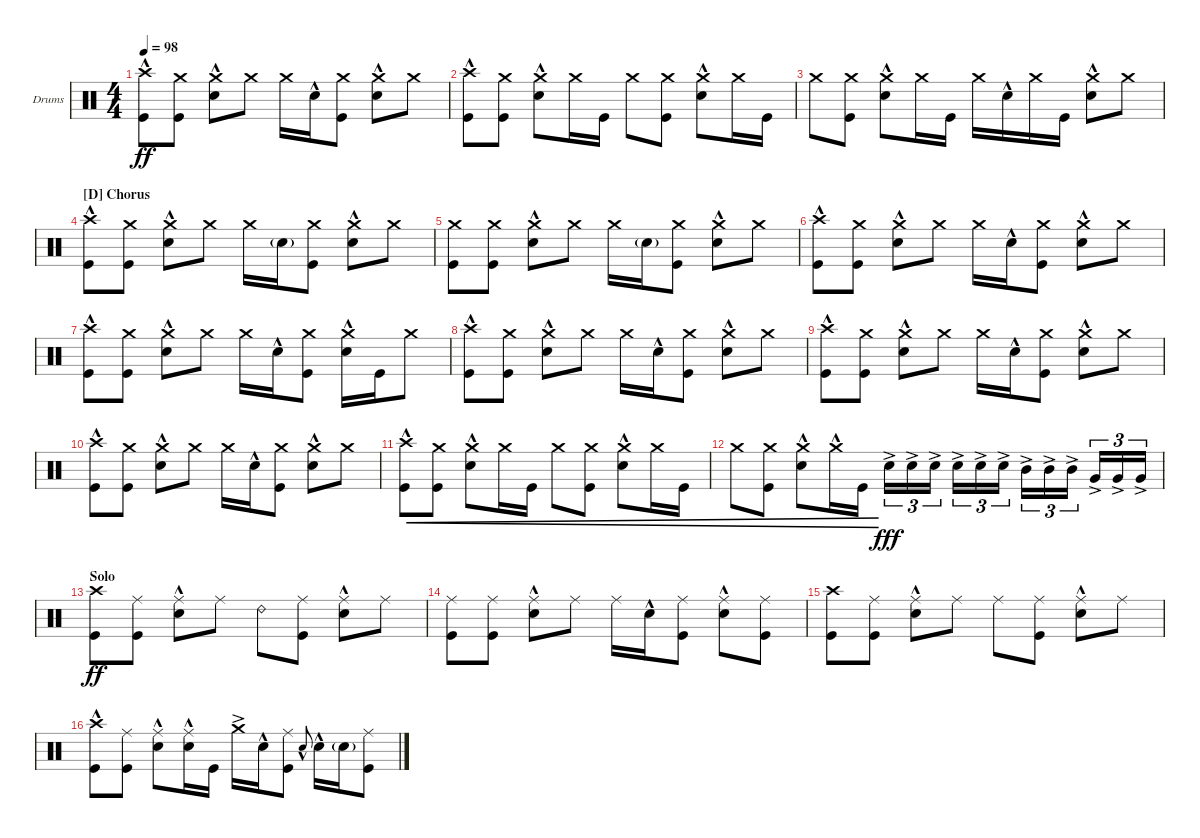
\defaultSystemsLayout 4
\bracketExtendMode groupsimilarinstruments
\firstSystemTrackNameOrientation horizontal
\otherSystemsTrackNameOrientation horizontal
\track ("Drumkit (Chad Smith)" "Drums") {instrument percussion}
\staff {score}
\articulation defaults
\ts (4 4)
\tempo 98
\clef neutral
\scale
0.333333
\ks c
("Kick (hit)" "Crash high (hit)"{hac}).8{dy ff} ("Crash medium (hit)" "Kick (hit)").8 ("Crash medium (hit)" "Snare (hit) 2"{hac}).8 "Crash medium (hit)".8 "Crash medium (hit)".16 "Snare (hit) 2"{hac}.16 ("Crash medium (hit)" "Kick (hit)").8 ("Crash medium (hit)" "Snare (hit) 2"{hac}).8 "Crash medium (hit)".8 |
\scale
0.333333 ("Kick (hit)" "Crash high (hit)"{hac}).8 ("Crash medium (hit)" "Kick (hit)").8 ("Crash medium (hit)" "Snare (hit) 2"{hac}).8 "Crash medium (hit)".16 "Kick (hit)".16 "Crash medium (hit)".8 ("Crash medium (hit)" "Kick (hit)").8 ("Crash medium (hit)" "Snare (hit) 2"{hac}).8 "Crash medium (hit)".16 "Kick (hit)".16 |
\scale
0.333333 "Crash medium (hit)".8 ("Crash medium (hit)" "Kick (hit)").8 ("Crash medium (hit)" "Snare (hit) 2"{hac}).8 "Crash medium (hit)".16 "Kick (hit)".16 "Crash medium (hit)".16 "Snare (hit) 2"{hac}.16 "Crash medium (hit)".16 "Kick (hit)".16 ("Snare (hit) 2"{hac} "Crash medium (hit)").8 "Crash medium (hit)".8 |
\section ("D" "Chorus")
\scale
0.333333 ("Kick (hit)" "Crash high (hit)"{hac}).8 ("Crash medium (hit)" "Kick (hit)").8 ("Crash medium (hit)" "Snare (hit) 2"{hac}).8 "Crash medium (hit)".8 "Crash medium (hit)".16 "Snare (hit) 2"{g}.16 ("Crash medium (hit)" "Kick (hit)").8 ("Crash medium (hit)" "Snare (hit) 2"{hac}).8 "Crash medium (hit)".8 |
\scale
0.333333 ("Crash medium (hit)" "Kick (hit)").8 ("Crash medium (hit)" "Kick (hit)").8 ("Crash medium (hit)" "Snare (hit) 2"{hac}).8 "Crash medium (hit)".8 "Crash medium (hit)".16 "Snare (hit) 2"{g}.16 ("Crash medium (hit)" "Kick (hit)").8 ("Crash medium (hit)" "Snare (hit) 2"{hac}).8 "Crash medium (hit)".8 |
\scale
0.333333 ("Kick (hit)" "Crash high (hit)"{hac}).8 ("Crash medium (hit)" "Kick (hit)").8 ("Crash medium (hit)" "Snare (hit) 2"{hac}).8 "Crash medium (hit)".8 "Crash medium (hit)".16 "Snare (hit) 2"{hac}.16 ("Crash medium (hit)" "Kick (hit)").8 ("Crash medium (hit)" "Snare (hit) 2"{hac}).8 "Crash medium (hit)".8 |
\scale
0.333333 ("Kick (hit)" "Crash high (hit)"{hac}).8 ("Crash medium (hit)" "Kick (hit)").8 ("Crash medium (hit)" "Snare (hit) 2"{hac}).8 "Crash medium (hit)".8 "Crash medium (hit)".16 "Snare (hit) 2"{hac}.16 ("Crash medium (hit)" "Kick (hit)").8 ("Crash medium (hit)" "Snare (hit) 2"{hac}).16 "Kick (hit)".16 "Crash medium (hit)".8 |
\scale
0.333333 ("Kick (hit)" "Crash high (hit)"{hac}).8 ("Crash medium (hit)" "Kick (hit)").8 ("Crash medium (hit)" "Snare (hit) 2"{hac}).8 "Crash medium (hit)".8 "Crash medium (hit)".16 "Snare (hit) 2"{hac}.16 ("Crash medium (hit)" "Kick (hit)").8 ("Crash medium (hit)" "Snare (hit) 2"{hac}).8 "Crash medium (hit)".8 |
\scale
0.333333 ("Kick (hit)" "Crash high (hit)"{hac}).8 ("Crash medium (hit)" "Kick (hit)").8 ("Crash medium (hit)" "Snare (hit) 2"{hac}).8 "Crash medium (hit)".8 "Crash medium (hit)".16 "Snare (hit) 2"{hac}.16 ("Crash medium (hit)" "Kick (hit)").8 ("Crash medium (hit)" "Snare (hit) 2"{hac}).8 "Crash medium (hit)".8 |
\scale
0.333333 ("Kick (hit)" "Crash high (hit)"{hac}).8 ("Crash medium (hit)" "Kick (hit)").8 ("Crash medium (hit)" "Snare (hit) 2"{hac}).8 "Crash medium (hit)".8 "Crash medium (hit)".16 "Snare (hit) 2"{hac}.16 ("Crash medium (hit)" "Kick (hit)").8 ("Crash medium (hit)" "Snare (hit) 2"{hac}).8 "Crash medium (hit)".8 |
\scale
0.333333 ("Kick (hit)" "Crash high (hit)"{hac}).8{cre} ("Crash medium (hit)" "Kick (hit)").8{cre} ("Crash medium (hit)" "Snare (hit) 2"{hac}).8{cre} "Crash medium (hit)".16{cre} "Kick (hit)".16{cre} "Crash medium (hit)".8{cre} ("Crash medium (hit)" "Kick (hit)").8{cre} ("Crash medium (hit)" "Snare (hit) 2"{hac}).8{cre} "Crash medium (hit)".16{cre} "Kick (hit)".16{cre} |
\scale
0.333333 "Crash medium (hit)".8{cre} ("Crash medium (hit)" "Kick (hit)").8{cre} ("Crash medium (hit)" "Snare (hit) 2"{hac}).8{cre} "Crash medium (hit)"{hac}.16{cre} "Kick (hit)".16{cre} "Snare (hit) 2"{ac}.16{tu (3 2) dy fff} "Snare (hit) 2"{ac}.16{tu (3 2)} "Snare (hit) 2"{ac}.16{tu (3 2)} "Snare (hit) 2"{ac}.16{tu (3 2)} "Snare (hit) 2"{ac}.16{tu (3 2)} "Snare (hit) 2"{ac}.16{tu (3 2)} "Mid Tom (hit)"{ac}.16{tu (3 2)} "Mid Tom (hit)"{ac}.16{tu (3 2)} "Mid Tom (hit)"{ac}.16{tu (3 2)} "Very Low Tom (hit)"{ac}.16{tu (3 2)} "Very Low Tom (hit)"{ac}.16{tu (3 2)} "Very Low Tom (hit)"{ac}.16{tu (3 2)} |
\section ("" "Solo")
\scale
0.333333 ("Kick (hit)" "Crash high (hit)").8{dy ff} ("Kick (hit)" "Ride (middle)").8 ("Snare (hit) 2"{hac} "Ride (middle)").8 "Ride (middle)".8 "Ride (bell) 2".8 ("Kick (hit)" "Ride (middle)").8 ("Snare (hit) 2"{hac} "Ride (middle)").8 "Ride (middle)".8 |
\scale
0.333333 ("Kick (hit)" "Ride (middle)").8 ("Kick (hit)" "Ride (middle)").8 ("Snare (hit) 2"{hac} "Ride (middle)").8 "Ride (middle)".8 "Ride (middle)".16 "Snare (hit) 2"{hac}.16 ("Kick (hit)" "Ride (middle)").8 ("Snare (hit) 2"{hac} "Ride (middle)").8 ("Ride (middle)" "Kick (hit)").8 |
\scale
0.333333 ("Kick (hit)" "Crash high (hit)").8 ("Kick (hit)" "Ride (middle)").8 ("Snare (hit) 2"{hac} "Ride (middle)").8 "Ride (middle)".8 "Ride (middle)".8 ("Kick (hit)" "Ride (middle)").8 ("Snare (hit) 2"{hac} "Ride (middle)").8 "Ride (middle)".8 |
\scale
0.333333 ("Kick (hit)" "Crash high (hit)"{hac}).8 ("Kick (hit)" "Ride (middle)").8 ("Snare (hit) 2"{hac} "Ride (middle)").8 ("Snare (hit) 2"{hac} "Ride (middle)").16 "Kick (hit)".16 "Crash medium (hit)"{ac}.16 "Snare (hit) 2"{hac}.16 ("Ride (middle)" "Kick (hit)").8 "Snare (hit) 2"{hac}.8{gr onbeat} "Snare (hit) 2"{hac}.16 "Snare (hit) 2"{g}.16 ("Kick (hit)" "Ride (middle)").8
